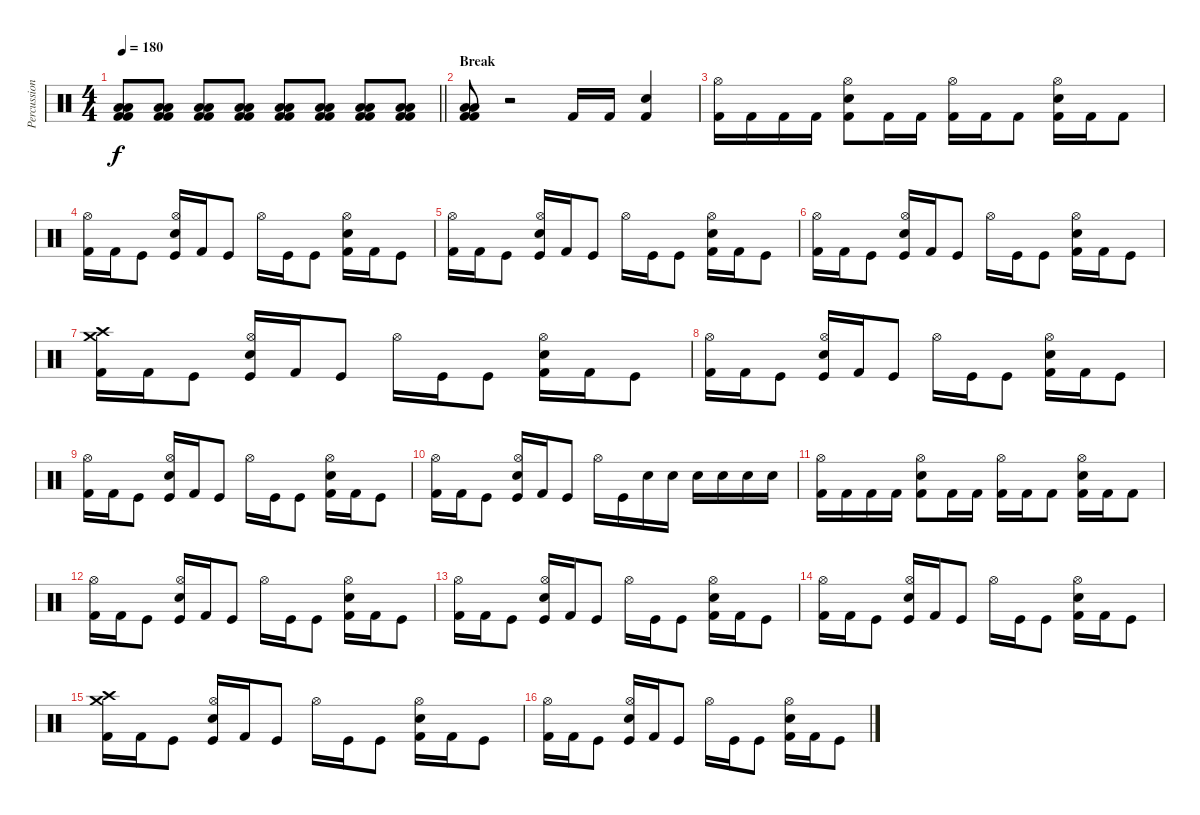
\track ("Percussion" "Percussion") {instrument percussion}
\staff {score}
\articulation defaults
\ts (4 4)
\tempo 180
\clef neutral
\barLineRight lightlight
\ks c
("Low Floor Tom (hit)" "Low Floor Tom (hit)" "Kick (hit) 2" "Kick (hit) 2").8{dy f} ("Low Floor Tom (hit)" "Low Floor Tom (hit)" "Kick (hit) 2" "Kick (hit) 2").8 ("Low Floor Tom (hit)" "Low Floor Tom (hit)" "Kick (hit) 2" "Kick (hit) 2").8 ("Low Floor Tom (hit)" "Low Floor Tom (hit)" "Kick (hit) 2" "Kick (hit) 2").8 ("Low Floor Tom (hit)" "Low Floor Tom (hit)" "Kick (hit) 2" "Kick (hit) 2").8 ("Low Floor Tom (hit)" "Low Floor Tom (hit)" "Kick (hit) 2" "Kick (hit) 2").8 ("Low Floor Tom (hit)" "Low Floor Tom (hit)" "Kick (hit) 2" "Kick (hit) 2").8 ("Low Floor Tom (hit)" "Low Floor Tom (hit)" "Kick (hit) 2" "Kick (hit) 2").8 |
\section ("" "Break")
("Low Floor Tom (hit)" "Low Floor Tom (hit)" "Kick (hit) 2" "Kick (hit) 2").8 r.2 "Kick (hit) 2".16 "Kick (hit) 2".16 ("Electric Snare (hit)" "Kick (hit) 2").4 |
("Hi-Hat (open)" "Kick (hit) 2").16 "Kick (hit) 2".16 "Kick (hit) 2".16 "Kick (hit) 2".16 ("Hi-Hat (open)" "Electric Snare (hit)" "Kick (hit) 2").8 "Kick (hit) 2".16 "Kick (hit) 2".16 ("Hi-Hat (open)" "Kick (hit) 2").16 "Kick (hit) 2".16 "Kick (hit) 2".8 ("Hi-Hat (open)" "Electric Snare (hit)" "Kick (hit) 2").16 "Kick (hit) 2".16 "Kick (hit) 2".8 |
("Hi-Hat (open)" "Kick (hit) 2").16 "Kick (hit) 2".16 "Kick (hit)".8 ("Hi-Hat (open)" "Electric Snare (hit)" "Kick (hit)").16 "Kick (hit) 2".16 "Kick (hit)".8 "Hi-Hat (open)".16 "Kick (hit)".16 "Kick (hit)".8 ("Hi-Hat (open)" "Electric Snare (hit)" "Kick (hit) 2").16 "Kick (hit) 2".16 "Kick (hit)".8 |
("Hi-Hat (open)" "Kick (hit) 2").16 "Kick (hit) 2".16 "Kick (hit)".8 ("Hi-Hat (open)" "Electric Snare (hit)" "Kick (hit)").16 "Kick (hit) 2".16 "Kick (hit)".8 "Hi-Hat (open)".16 "Kick (hit)".16 "Kick (hit)".8 ("Hi-Hat (open)" "Electric Snare (hit)" "Kick (hit) 2").16 "Kick (hit) 2".16 "Kick (hit)".8 |
("Hi-Hat (open)" "Kick (hit) 2").16 "Kick (hit) 2".16 "Kick (hit)".8 ("Hi-Hat (open)" "Electric Snare (hit)" "Kick (hit)").16 "Kick (hit) 2".16 "Kick (hit)".8 "Hi-Hat (open)".16 "Kick (hit)".16 "Kick (hit)".8 ("Hi-Hat (open)" "Electric Snare (hit)" "Kick (hit) 2").16 "Kick (hit) 2".16 "Kick (hit)".8 |
("Crash high (hit)" "Crash medium (hit)" "Kick (hit) 2").16 "Kick (hit) 2".16 "Kick (hit)".8 ("Hi-Hat (open)" "Electric Snare (hit)" "Kick (hit)").16 "Kick (hit) 2".16 "Kick (hit)".8 "Hi-Hat (open)".16 "Kick (hit)".16 "Kick (hit)".8 ("Hi-Hat (open)" "Electric Snare (hit)" "Kick (hit) 2").16 "Kick (hit) 2".16 "Kick (hit)".8 |
("Hi-Hat (open)" "Kick (hit) 2").16 "Kick (hit) 2".16 "Kick (hit)".8 ("Hi-Hat (open)" "Electric Snare (hit)" "Kick (hit)").16 "Kick (hit) 2".16 "Kick (hit)".8 "Hi-Hat (open)".16 "Kick (hit)".16 "Kick (hit)".8 ("Hi-Hat (open)" "Electric Snare (hit)" "Kick (hit) 2").16 "Kick (hit) 2".16 "Kick (hit)".8 |
("Hi-Hat (open)" "Kick (hit) 2").16 "Kick (hit) 2".16 "Kick (hit)".8 ("Hi-Hat (open)" "Electric Snare (hit)" "Kick (hit)").16 "Kick (hit) 2".16 "Kick (hit)".8 "Hi-Hat (open)".16 "Kick (hit)".16 "Kick (hit)".8 ("Hi-Hat (open)" "Electric Snare (hit)" "Kick (hit) 2").16 "Kick (hit) 2".16 "Kick (hit)".8 |
("Hi-Hat (open)" "Kick (hit) 2").16 "Kick (hit) 2".16 "Kick (hit)".8 ("Hi-Hat (open)" "Electric Snare (hit)" "Kick (hit)").16 "Kick (hit) 2".16 "Kick (hit)".8 "Hi-Hat (open)".16 "Kick (hit)".16 "Electric Snare (hit)".16 "Electric Snare (hit)".16 "Electric Snare (hit)".16 "Electric Snare (hit)".16 "Electric Snare (hit)".16 "Electric Snare (hit)".16 |
("Hi-Hat (open)" "Kick (hit) 2").16 "Kick (hit) 2".16 "Kick (hit) 2".16 "Kick (hit) 2".16 ("Hi-Hat (open)" "Electric Snare (hit)" "Kick (hit) 2").8 "Kick (hit) 2".16 "Kick (hit) 2".16 ("Hi-Hat (open)" "Kick (hit) 2").16 "Kick (hit) 2".16 "Kick (hit) 2".8 ("Hi-Hat (open)" "Electric Snare (hit)" "Kick (hit) 2").16 "Kick (hit) 2".16 "Kick (hit) 2".8 |
("Hi-Hat (open)" "Kick (hit) 2").16 "Kick (hit) 2".16 "Kick (hit)".8 ("Hi-Hat (open)" "Electric Snare (hit)" "Kick (hit)").16 "Kick (hit) 2".16 "Kick (hit)".8 "Hi-Hat (open)".16 "Kick (hit)".16 "Kick (hit)".8 ("Hi-Hat (open)" "Electric Snare (hit)" "Kick (hit) 2").16 "Kick (hit) 2".16 "Kick (hit)".8 |
("Hi-Hat (open)" "Kick (hit) 2").16 "Kick (hit) 2".16 "Kick (hit)".8 ("Hi-Hat (open)" "Electric Snare (hit)" "Kick (hit)").16 "Kick (hit) 2".16 "Kick (hit)".8 "Hi-Hat (open)".16 "Kick (hit)".16 "Kick (hit)".8 ("Hi-Hat (open)" "Electric Snare (hit)" "Kick (hit) 2").16 "Kick (hit) 2".16 "Kick (hit)".8 |
("Hi-Hat (open)" "Kick (hit) 2").16 "Kick (hit) 2".16 "Kick (hit)".8 ("Hi-Hat (open)" "Electric Snare (hit)" "Kick (hit)").16 "Kick (hit) 2".16 "Kick (hit)".8 "Hi-Hat (open)".16 "Kick (hit)".16 "Kick (hit)".8 ("Hi-Hat (open)" "Electric Snare (hit)" "Kick (hit) 2").16 "Kick (hit) 2".16 "Kick (hit)".8 |
("Crash high (hit)" "Crash medium (hit)" "Kick (hit) 2").16 "Kick (hit) 2".16 "Kick (hit)".8 ("Hi-Hat (open)" "Electric Snare (hit)" "Kick (hit)").16 "Kick (hit) 2".16 "Kick (hit)".8 "Hi-Hat (open)".16 "Kick (hit)".16 "Kick (hit)".8 ("Hi-Hat (open)" "Electric Snare (hit)" "Kick (hit) 2").16 "Kick (hit) 2".16 "Kick (hit)".8 |
("Hi-Hat (open)" "Kick (hit) 2").16 "Kick (hit) 2".16 "Kick (hit)".8 ("Hi-Hat (open)" "Electric Snare (hit)" "Kick (hit)").16 "Kick (hit) 2".16 "Kick (hit)".8 "Hi-Hat (open)".16 "Kick (hit)".16 "Kick (hit)".8 ("Hi-Hat (open)" "Electric Snare (hit)" "Kick (hit) 2").16 "Kick (hit) 2".16 "Kick (hit)".8
